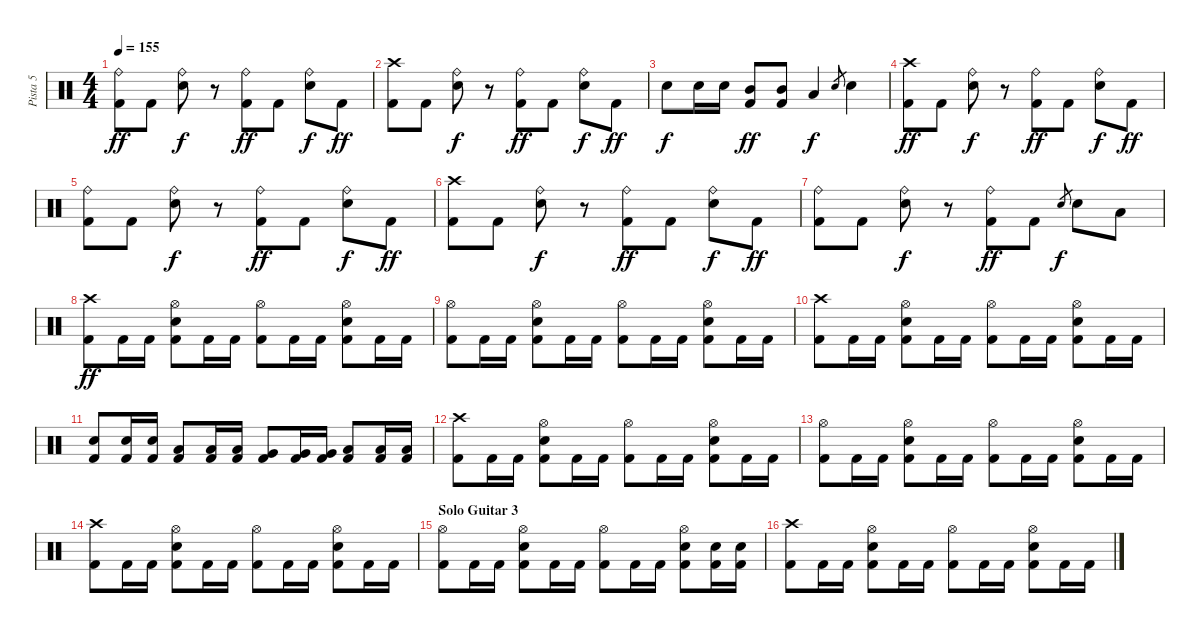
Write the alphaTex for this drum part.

\track ("Pista 5" "Pista 5") {instrument percussion}
\staff {score}
\articulation defaults
\ts (4 4)
\tempo 155
\clef neutral
\ks c
("Ride (bell)" "Kick (hit) 2").8{dy ff} "Kick (hit) 2".8 ("Ride (bell)" "Electric Snare (hit)").8{dy f} r.8 ("Ride (bell)" "Kick (hit) 2").8{dy ff} "Kick (hit) 2".8 ("Ride (bell)" "Electric Snare (hit)").8{dy f} "Kick (hit) 2".8{dy ff} |
("Crash high (hit)" "Kick (hit) 2").8 "Kick (hit) 2".8 ("Ride (bell)" "Electric Snare (hit)").8{dy f} r.8 ("Ride (bell)" "Kick (hit) 2").8{dy ff} "Kick (hit) 2".8 ("Ride (bell)" "Electric Snare (hit)").8{dy f} "Kick (hit) 2".8{dy ff} |
"Electric Snare (hit)".8{dy f} "Electric Snare (hit)".16 "Electric Snare (hit)".16 ("Mid Tom (hit)" "Kick (hit) 2").8{dy ff} ("Mid Tom (hit)" "Kick (hit) 2").8 "Low Tom (hit)".4{dy f} "Electric Snare (hit)".8{gr} "Electric Snare (hit)".4 |
("Crash high (hit)" "Kick (hit) 2").8{dy ff} "Kick (hit) 2".8 ("Ride (bell)" "Electric Snare (hit)").8{dy f} r.8 ("Ride (bell)" "Kick (hit) 2").8{dy ff} "Kick (hit) 2".8 ("Ride (bell)" "Electric Snare (hit)").8{dy f} "Kick (hit) 2".8{dy ff} |
("Ride (bell)" "Kick (hit) 2").8 "Kick (hit) 2".8 ("Ride (bell)" "Electric Snare (hit)").8{dy f} r.8 ("Ride (bell)" "Kick (hit) 2").8{dy ff} "Kick (hit) 2".8 ("Ride (bell)" "Electric Snare (hit)").8{dy f} "Kick (hit) 2".8{dy ff} |
("Crash high (hit)" "Kick (hit) 2").8 "Kick (hit) 2".8 ("Ride (bell)" "Electric Snare (hit)").8{dy f} r.8 ("Ride (bell)" "Kick (hit) 2").8{dy ff} "Kick (hit) 2".8 ("Ride (bell)" "Electric Snare (hit)").8{dy f} "Kick (hit) 2".8{dy ff} |
("Ride (bell)" "Kick (hit) 2").8 "Kick (hit) 2".8 ("Ride (bell)" "Electric Snare (hit)").8{dy f} r.8 ("Ride (bell)" "Kick (hit) 2").8{dy ff} "Kick (hit) 2".8 "Electric Snare (hit)".8{gr dy f} "Electric Snare (hit)".8 "Low Tom (hit)".8 |
("Crash high (hit)" "Kick (hit) 2").8{dy ff} "Kick (hit) 2".16 "Kick (hit) 2".16 ("Hi-Hat (open)" "Electric Snare (hit)" "Kick (hit) 2").8 "Kick (hit) 2".16 "Kick (hit) 2".16 ("Hi-Hat (open)" "Kick (hit) 2").8 "Kick (hit) 2".16 "Kick (hit) 2".16 ("Hi-Hat (open)" "Electric Snare (hit)" "Kick (hit) 2").8 "Kick (hit) 2".16 "Kick (hit) 2".16 |
("Hi-Hat (open)" "Kick (hit) 2").8 "Kick (hit) 2".16 "Kick (hit) 2".16 ("Hi-Hat (open)" "Electric Snare (hit)" "Kick (hit) 2").8 "Kick (hit) 2".16 "Kick (hit) 2".16 ("Hi-Hat (open)" "Kick (hit) 2").8 "Kick (hit) 2".16 "Kick (hit) 2".16 ("Hi-Hat (open)" "Electric Snare (hit)" "Kick (hit) 2").8 "Kick (hit) 2".16 "Kick (hit) 2".16 |
("Crash high (hit)" "Kick (hit) 2").8 "Kick (hit) 2".16 "Kick (hit) 2".16 ("Hi-Hat (open)" "Electric Snare (hit)" "Kick (hit) 2").8 "Kick (hit) 2".16 "Kick (hit) 2".16 ("Hi-Hat (open)" "Kick (hit) 2").8 "Kick (hit) 2".16 "Kick (hit) 2".16 ("Hi-Hat (open)" "Electric Snare (hit)" "Kick (hit) 2").8 "Kick (hit) 2".16 "Kick (hit) 2".16 |
("Electric Snare (hit)" "Kick (hit) 2").8 ("Electric Snare (hit)" "Kick (hit) 2").16 ("Electric Snare (hit)" "Kick (hit) 2").16 ("Low Tom (hit)" "Kick (hit) 2").8 ("Low Tom (hit)" "Kick (hit) 2").16 ("Low Tom (hit)" "Kick (hit) 2").16 ("Very Low Tom (hit)" "Kick (hit) 2").8 ("Very Low Tom (hit)" "Kick (hit) 2").16 ("Very Low Tom (hit)" "Kick (hit) 2").16 ("Low Floor Tom (hit)" "Kick (hit) 2").8 ("Low Floor Tom (hit)" "Kick (hit) 2").16 ("Low Floor Tom (hit)" "Kick (hit) 2").16 |
("Crash high (hit)" "Kick (hit) 2").8 "Kick (hit) 2".16 "Kick (hit) 2".16 ("Hi-Hat (open)" "Electric Snare (hit)" "Kick (hit) 2").8 "Kick (hit) 2".16 "Kick (hit) 2".16 ("Hi-Hat (open)" "Kick (hit) 2").8 "Kick (hit) 2".16 "Kick (hit) 2".16 ("Hi-Hat (open)" "Electric Snare (hit)" "Kick (hit) 2").8 "Kick (hit) 2".16 "Kick (hit) 2".16 |
("Hi-Hat (open)" "Kick (hit) 2").8 "Kick (hit) 2".16 "Kick (hit) 2".16 ("Hi-Hat (open)" "Electric Snare (hit)" "Kick (hit) 2").8 "Kick (hit) 2".16 "Kick (hit) 2".16 ("Hi-Hat (open)" "Kick (hit) 2").8 "Kick (hit) 2".16 "Kick (hit) 2".16 ("Hi-Hat (open)" "Electric Snare (hit)" "Kick (hit) 2").8 "Kick (hit) 2".16 "Kick (hit) 2".16 |
("Crash high (hit)" "Kick (hit) 2").8 "Kick (hit) 2".16 "Kick (hit) 2".16 ("Hi-Hat (open)" "Electric Snare (hit)" "Kick (hit) 2").8 "Kick (hit) 2".16 "Kick (hit) 2".16 ("Hi-Hat (open)" "Kick (hit) 2").8 "Kick (hit) 2".16 "Kick (hit) 2".16 ("Hi-Hat (open)" "Electric Snare (hit)" "Kick (hit) 2").8 "Kick (hit) 2".16 "Kick (hit) 2".16 |
\section ("" "Solo Guitar 3")
("Hi-Hat (open)" "Kick (hit) 2").8 "Kick (hit) 2".16 "Kick (hit) 2".16 ("Hi-Hat (open)" "Electric Snare (hit)" "Kick (hit) 2").8 "Kick (hit) 2".16 "Kick (hit) 2".16 ("Hi-Hat (open)" "Kick (hit) 2").8 "Kick (hit) 2".16 "Kick (hit) 2".16 ("Hi-Hat (open)" "Electric Snare (hit)" "Kick (hit) 2").8 ("Electric Snare (hit)" "Kick (hit) 2").16 ("Electric Snare (hit)" "Kick (hit) 2").16 |
("Crash high (hit)" "Kick (hit) 2").8 "Kick (hit) 2".16 "Kick (hit) 2".16 ("Hi-Hat (open)" "Electric Snare (hit)" "Kick (hit) 2").8 "Kick (hit) 2".16 "Kick (hit) 2".16 ("Hi-Hat (open)" "Kick (hit) 2").8 "Kick (hit) 2".16 "Kick (hit) 2".16 ("Hi-Hat (open)" "Electric Snare (hit)" "Kick (hit) 2").8 "Kick (hit) 2".16 "Kick (hit) 2".16
